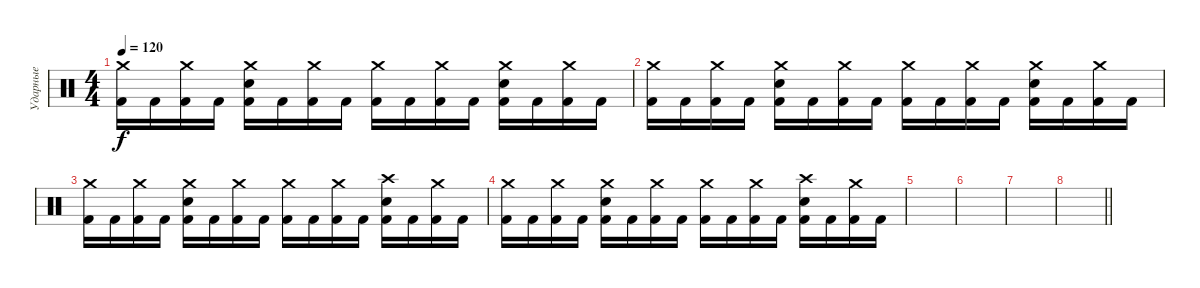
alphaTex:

\track ("Ударные" "Ударные") {instrument percussion}
\staff {score}
\articulation defaults
\ts (4 4)
\tempo 120
\clef neutral
\ks c
("Crash medium (hit)" "Kick (hit) 2").16{dy f} "Kick (hit) 2".16 ("Crash medium (hit)" "Kick (hit) 2").16 "Kick (hit) 2".16 ("Crash medium (hit)" "Electric Snare (hit)" "Kick (hit) 2").16 "Kick (hit) 2".16 ("Crash medium (hit)" "Kick (hit) 2").16 "Kick (hit) 2".16 ("Crash medium (hit)" "Kick (hit) 2").16 "Kick (hit) 2".16 ("Crash medium (hit)" "Kick (hit) 2").16 "Kick (hit) 2".16 ("Crash medium (hit)" "Electric Snare (hit)" "Kick (hit) 2").16 "Kick (hit) 2".16 ("Crash medium (hit)" "Kick (hit) 2").16 "Kick (hit) 2".16 |
("Crash medium (hit)" "Kick (hit) 2").16 "Kick (hit) 2".16 ("Crash medium (hit)" "Kick (hit) 2").16 "Kick (hit) 2".16 ("Crash medium (hit)" "Electric Snare (hit)" "Kick (hit) 2").16 "Kick (hit) 2".16 ("Crash medium (hit)" "Kick (hit) 2").16 "Kick (hit) 2".16 ("Crash medium (hit)" "Kick (hit) 2").16 "Kick (hit) 2".16 ("Crash medium (hit)" "Kick (hit) 2").16 "Kick (hit) 2".16 ("Crash medium (hit)" "Electric Snare (hit)" "Kick (hit) 2").16 "Kick (hit) 2".16 ("Crash medium (hit)" "Kick (hit) 2").16 "Kick (hit) 2".16 |
("Crash medium (hit)" "Kick (hit) 2").16 "Kick (hit) 2".16 ("Crash medium (hit)" "Kick (hit) 2").16 "Kick (hit) 2".16 ("Crash medium (hit)" "Electric Snare (hit)" "Kick (hit) 2").16 "Kick (hit) 2".16 ("Crash medium (hit)" "Kick (hit) 2").16 "Kick (hit) 2".16 ("Crash medium (hit)" "Kick (hit) 2").16 "Kick (hit) 2".16 ("Crash medium (hit)" "Kick (hit) 2").16 "Kick (hit) 2".16 ("Crash high (hit)" "Electric Snare (hit)" "Kick (hit) 2").16 "Kick (hit) 2".16 ("Crash medium (hit)" "Kick (hit) 2").16 "Kick (hit) 2".16 |
("Crash medium (hit)" "Kick (hit) 2").16 "Kick (hit) 2".16 ("Crash medium (hit)" "Kick (hit) 2").16 "Kick (hit) 2".16 ("Crash medium (hit)" "Electric Snare (hit)" "Kick (hit) 2").16 "Kick (hit) 2".16 ("Crash medium (hit)" "Kick (hit) 2").16 "Kick (hit) 2".16 ("Crash medium (hit)" "Kick (hit) 2").16 "Kick (hit) 2".16 ("Crash medium (hit)" "Kick (hit) 2").16 "Kick (hit) 2".16 ("Crash high (hit)" "Electric Snare (hit)" "Kick (hit) 2").16 "Kick (hit) 2".16 ("Crash medium (hit)" "Kick (hit) 2").16 "Kick (hit) 2".16 |
|
|
|
\barLineRight lightlight
